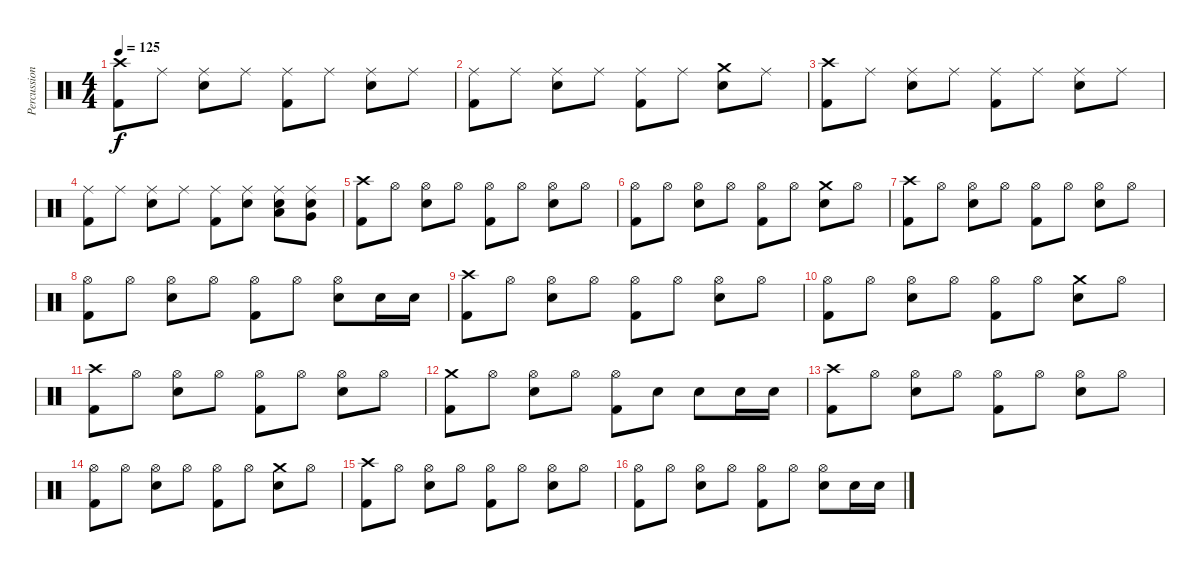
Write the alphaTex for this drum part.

\track ("Percussion" "Percussion") {instrument percussion}
\staff {score}
\articulation defaults
\ts (4 4)
\tempo 125
\clef neutral
\ks c
("Crash high (hit)" "Kick (hit) 2").8{dy f} "Ride (middle)".8 ("Ride (middle)" "Snare (hit) 2").8 "Ride (middle)".8 ("Ride (middle)" "Kick (hit) 2").8 "Ride (middle)".8 ("Ride (middle)" "Snare (hit) 2").8 "Ride (middle)".8 |
("Ride (middle)" "Kick (hit) 2").8 "Ride (middle)".8 ("Ride (middle)" "Snare (hit) 2").8 "Ride (middle)".8 ("Ride (middle)" "Kick (hit) 2").8 "Ride (middle)".8 ("Crash medium (hit)" "Snare (hit) 2").8 "Ride (middle)".8 |
("Crash high (hit)" "Kick (hit) 2").8 "Ride (middle)".8 ("Ride (middle)" "Snare (hit) 2").8 "Ride (middle)".8 ("Ride (middle)" "Kick (hit) 2").8 "Ride (middle)".8 ("Ride (middle)" "Snare (hit) 2").8 "Ride (middle)".8 |
("Ride (middle)" "Kick (hit) 2").8 "Ride (middle)".8 ("Ride (middle)" "Snare (hit) 2").8 "Ride (middle)".8 ("Ride (middle)" "Kick (hit) 2").8 ("Ride (middle)" "Snare (hit) 2").8 ("Ride (middle)" "Low Tom (hit)" "Snare (hit) 2").8 ("Ride (middle)" "Very Low Tom (hit)" "Snare (hit) 2").8 |
("Crash high (hit)" "Kick (hit) 2").8 "Hi-Hat (open)".8 ("Hi-Hat (open)" "Snare (hit) 2").8 "Hi-Hat (open)".8 ("Hi-Hat (open)" "Kick (hit) 2").8 "Hi-Hat (open)".8 ("Hi-Hat (open)" "Snare (hit) 2").8 "Hi-Hat (open)".8 |
("Hi-Hat (open)" "Kick (hit) 2").8 "Hi-Hat (open)".8 ("Hi-Hat (open)" "Snare (hit) 2").8 "Hi-Hat (open)".8 ("Hi-Hat (open)" "Kick (hit) 2").8 "Hi-Hat (open)".8 ("Crash medium (hit)" "Snare (hit) 2").8 "Hi-Hat (open)".8 |
("Crash high (hit)" "Kick (hit) 2").8 "Hi-Hat (open)".8 ("Hi-Hat (open)" "Snare (hit) 2").8 "Hi-Hat (open)".8 ("Hi-Hat (open)" "Kick (hit) 2").8 "Hi-Hat (open)".8 ("Hi-Hat (open)" "Snare (hit) 2").8 "Hi-Hat (open)".8 |
("Hi-Hat (open)" "Kick (hit) 2").8 "Hi-Hat (open)".8 ("Hi-Hat (open)" "Snare (hit) 2").8 "Hi-Hat (open)".8 ("Hi-Hat (open)" "Kick (hit) 2").8 "Hi-Hat (open)".8 ("Hi-Hat (open)" "Snare (hit) 2").8 "Snare (hit) 2".16 "Snare (hit) 2".16 |
("Crash high (hit)" "Kick (hit) 2").8 "Hi-Hat (open)".8 ("Hi-Hat (open)" "Snare (hit) 2").8 "Hi-Hat (open)".8 ("Hi-Hat (open)" "Kick (hit) 2").8 "Hi-Hat (open)".8 ("Hi-Hat (open)" "Snare (hit) 2").8 "Hi-Hat (open)".8 |
("Hi-Hat (open)" "Kick (hit) 2").8 "Hi-Hat (open)".8 ("Hi-Hat (open)" "Snare (hit) 2").8 "Hi-Hat (open)".8 ("Hi-Hat (open)" "Kick (hit) 2").8 "Hi-Hat (open)".8 ("Crash medium (hit)" "Snare (hit) 2").8 "Hi-Hat (open)".8 |
("Crash high (hit)" "Kick (hit) 2").8 "Hi-Hat (open)".8 ("Hi-Hat (open)" "Snare (hit) 2").8 "Hi-Hat (open)".8 ("Hi-Hat (open)" "Kick (hit) 2").8 "Hi-Hat (open)".8 ("Hi-Hat (open)" "Snare (hit) 2").8 "Hi-Hat (open)".8 |
("Crash medium (hit)" "Kick (hit) 2").8 "Hi-Hat (open)".8 ("Hi-Hat (open)" "Snare (hit) 2").8 "Hi-Hat (open)".8 ("Hi-Hat (open)" "Kick (hit) 2").8 "Snare (hit) 2".8 "Snare (hit) 2".8 "Snare (hit) 2".16 "Snare (hit) 2".16 |
("Crash high (hit)" "Kick (hit) 2").8 "Hi-Hat (open)".8 ("Hi-Hat (open)" "Snare (hit) 2").8 "Hi-Hat (open)".8 ("Hi-Hat (open)" "Kick (hit) 2").8 "Hi-Hat (open)".8 ("Hi-Hat (open)" "Snare (hit) 2").8 "Hi-Hat (open)".8 |
("Hi-Hat (open)" "Kick (hit) 2").8 "Hi-Hat (open)".8 ("Hi-Hat (open)" "Snare (hit) 2").8 "Hi-Hat (open)".8 ("Hi-Hat (open)" "Kick (hit) 2").8 "Hi-Hat (open)".8 ("Crash medium (hit)" "Snare (hit) 2").8 "Hi-Hat (open)".8 |
("Crash high (hit)" "Kick (hit) 2").8 "Hi-Hat (open)".8 ("Hi-Hat (open)" "Snare (hit) 2").8 "Hi-Hat (open)".8 ("Hi-Hat (open)" "Kick (hit) 2").8 "Hi-Hat (open)".8 ("Hi-Hat (open)" "Snare (hit) 2").8 "Hi-Hat (open)".8 |
("Hi-Hat (open)" "Kick (hit) 2").8 "Hi-Hat (open)".8 ("Hi-Hat (open)" "Snare (hit) 2").8 "Hi-Hat (open)".8 ("Hi-Hat (open)" "Kick (hit) 2").8 "Hi-Hat (open)".8 ("Hi-Hat (open)" "Snare (hit) 2").8 "Snare (hit) 2".16 "Snare (hit) 2".16
